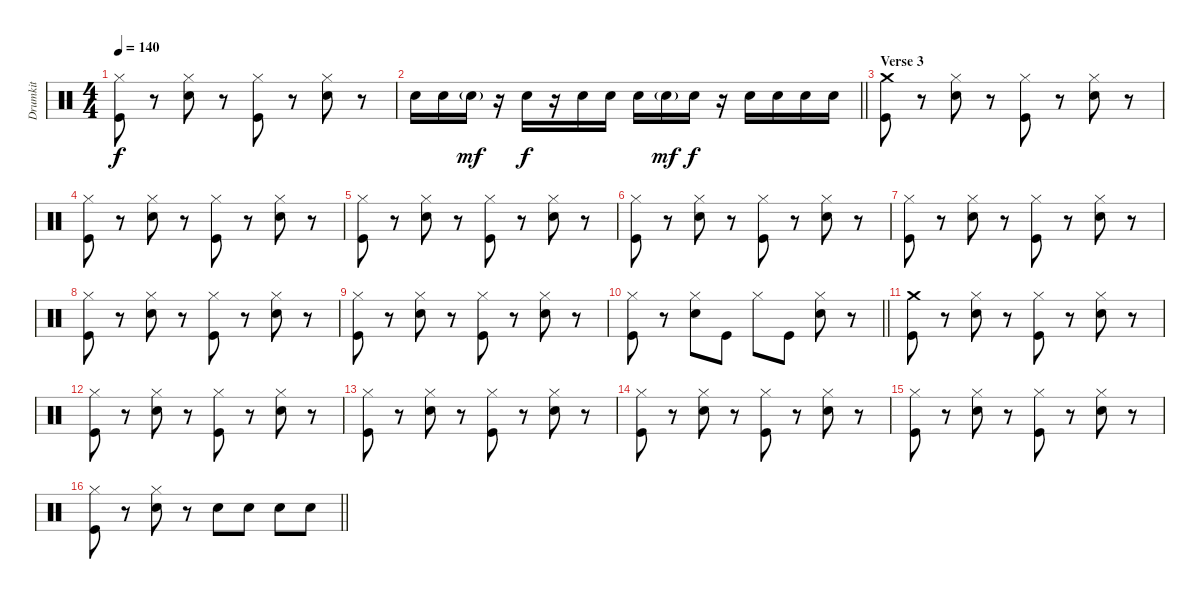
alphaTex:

\track ("Drumkit" "Drumkit") {instrument percussion}
\staff {score}
\articulation defaults
\ts (4 4)
\tempo 140
\clef neutral
\ks c
("Hi-Hat (closed)" "Kick (hit)").8{dy f} r.8 ("Hi-Hat (closed)" "Snare (hit) 2").8 r.8 ("Hi-Hat (closed)" "Kick (hit)").8 r.8 ("Hi-Hat (closed)" "Snare (hit) 2").8 r.8 |
\barLineRight lightlight "Snare (hit) 2".16 "Snare (hit) 2".16 "Snare (hit) 2"{g}.16{dy mf}
r.16 "Snare (hit) 2".16{dy f} r.16 "Snare (hit) 2".16 "Snare (hit) 2".16 "Snare (hit) 2".16 "Snare (hit) 2"{g}.16{dy mf} "Snare (hit) 2".16{dy f} r.16 "Snare (hit) 2".16 "Snare (hit) 2".16 "Snare (hit) 2".16 "Snare (hit) 2".16 |
\section ("" "Verse 3")
("Crash medium (hit)" "Kick (hit)").8 r.8 ("Hi-Hat (closed)" "Snare (hit) 2").8 r.8 ("Hi-Hat (closed)" "Kick (hit)").8 r.8 ("Hi-Hat (closed)" "Snare (hit) 2").8 r.8 |
("Hi-Hat (closed)" "Kick (hit)").8 r.8 ("Hi-Hat (closed)" "Snare (hit) 2").8 r.8 ("Hi-Hat (closed)" "Kick (hit)").8 r.8 ("Hi-Hat (closed)" "Snare (hit) 2").8 r.8 |
("Hi-Hat (closed)" "Kick (hit)").8 r.8 ("Hi-Hat (closed)" "Snare (hit) 2").8 r.8 ("Hi-Hat (closed)" "Kick (hit)").8 r.8 ("Hi-Hat (closed)" "Snare (hit) 2").8 r.8 |
("Hi-Hat (closed)" "Kick (hit)").8 r.8 ("Hi-Hat (closed)" "Snare (hit) 2").8 r.8 ("Hi-Hat (closed)" "Kick (hit)").8 r.8 ("Hi-Hat (closed)" "Snare (hit) 2").8 r.8 |
("Hi-Hat (closed)" "Kick (hit)").8 r.8 ("Hi-Hat (closed)" "Snare (hit) 2").8 r.8 ("Hi-Hat (closed)" "Kick (hit)").8 r.8 ("Hi-Hat (closed)" "Snare (hit) 2").8 r.8 |
("Hi-Hat (closed)" "Kick (hit)").8 r.8 ("Hi-Hat (closed)" "Snare (hit) 2").8 r.8 ("Hi-Hat (closed)" "Kick (hit)").8 r.8 ("Hi-Hat (closed)" "Snare (hit) 2").8 r.8 |
("Hi-Hat (closed)" "Kick (hit)").8 r.8 ("Hi-Hat (closed)" "Snare (hit) 2").8 r.8 ("Hi-Hat (closed)" "Kick (hit)").8 r.8 ("Hi-Hat (closed)" "Snare (hit) 2").8 r.8 |
\barLineRight lightlight
("Hi-Hat (closed)" "Kick (hit)").8 r.8 ("Hi-Hat (closed)" "Snare (hit) 2").8 "Kick (hit)".8 "Hi-Hat (closed)".8 "Kick (hit)".8 ("Hi-Hat (closed)" "Snare (hit) 2").8 r.8 |
("Crash medium (hit)" "Kick (hit)").8 r.8 ("Hi-Hat (closed)" "Snare (hit) 2").8 r.8 ("Hi-Hat (closed)" "Kick (hit)").8 r.8 ("Hi-Hat (closed)" "Snare (hit) 2").8 r.8 |
("Hi-Hat (closed)" "Kick (hit)").8 r.8 ("Hi-Hat (closed)" "Snare (hit) 2").8 r.8 ("Hi-Hat (closed)" "Kick (hit)").8 r.8 ("Hi-Hat (closed)" "Snare (hit) 2").8 r.8 |
("Hi-Hat (closed)" "Kick (hit)").8 r.8 ("Hi-Hat (closed)" "Snare (hit) 2").8 r.8 ("Hi-Hat (closed)" "Kick (hit)").8 r.8 ("Hi-Hat (closed)" "Snare (hit) 2").8 r.8 |
("Hi-Hat (closed)" "Kick (hit)").8 r.8 ("Hi-Hat (closed)" "Snare (hit) 2").8 r.8 ("Hi-Hat (closed)" "Kick (hit)").8 r.8 ("Hi-Hat (closed)" "Snare (hit) 2").8 r.8 |
("Hi-Hat (closed)" "Kick (hit)").8 r.8 ("Hi-Hat (closed)" "Snare (hit) 2").8 r.8 ("Hi-Hat (closed)" "Kick (hit)").8 r.8 ("Hi-Hat (closed)" "Snare (hit) 2").8 r.8 |
\barLineRight lightlight
("Hi-Hat (closed)" "Kick (hit)").8 r.8 ("Hi-Hat (closed)" "Snare (hit) 2").8 r.8 "Snare (hit) 2".8 "Snare (hit) 2".8 "Snare (hit) 2".8 "Snare (hit) 2".8
